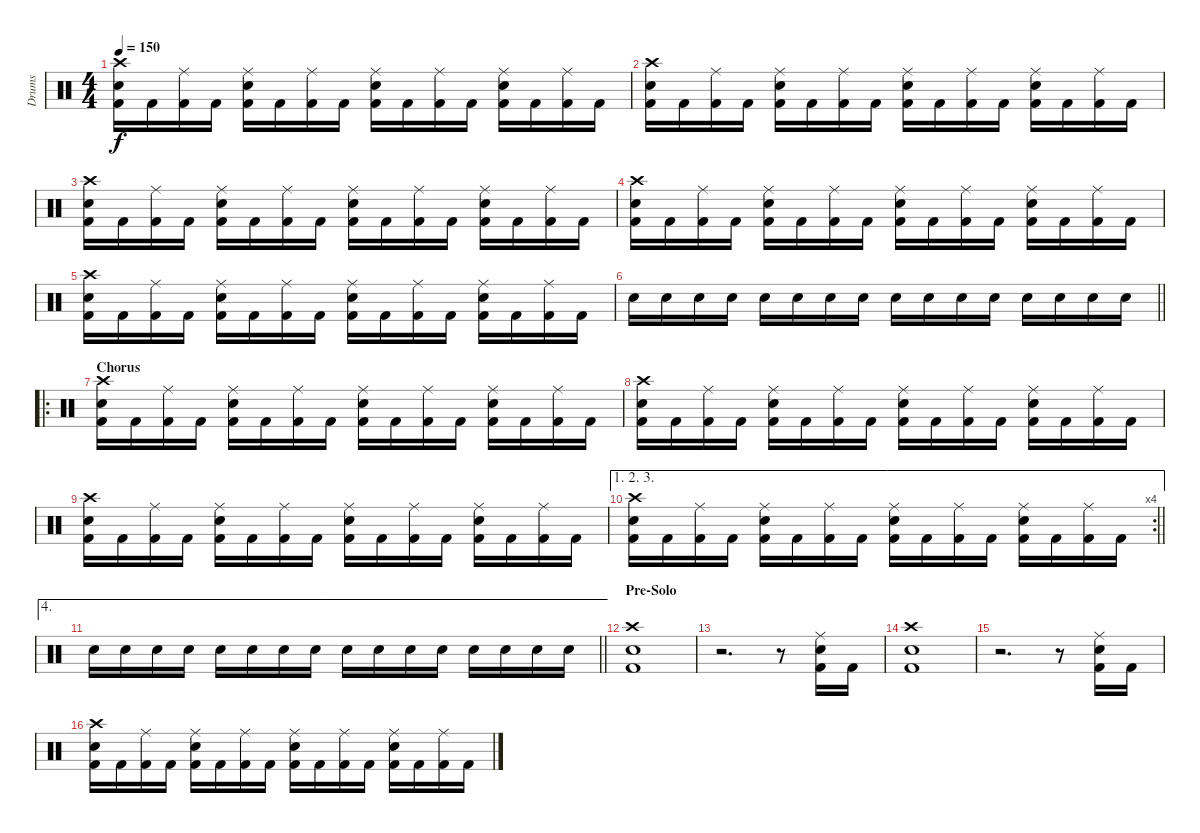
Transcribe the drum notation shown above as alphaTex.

\track ("Drums" "Drums") {instrument percussion}
\staff {score}
\articulation defaults
\ts (4 4)
\tempo 150
\clef neutral
\ks c
("Kick (hit) 2" "Snare (hit) 2" "Crash high (hit)").16{dy f} "Kick (hit) 2".16 ("Kick (hit) 2" "Ride (middle)").16 "Kick (hit) 2".16 ("Kick (hit) 2" "Snare (hit) 2" "Ride (middle)").16 "Kick (hit) 2".16 ("Kick (hit) 2" "Ride (middle)").16 "Kick (hit) 2".16 ("Kick (hit) 2" "Snare (hit) 2" "Ride (middle)").16 "Kick (hit) 2".16 ("Kick (hit) 2" "Ride (middle)").16 "Kick (hit) 2".16 ("Kick (hit) 2" "Snare (hit) 2" "Ride (middle)").16 "Kick (hit) 2".16 ("Kick (hit) 2" "Ride (middle)").16 "Kick (hit) 2".16 |
("Kick (hit) 2" "Snare (hit) 2" "Crash high (hit)").16 "Kick (hit) 2".16 ("Kick (hit) 2" "Ride (middle)").16 "Kick (hit) 2".16 ("Kick (hit) 2" "Snare (hit) 2" "Ride (middle)").16 "Kick (hit) 2".16 ("Kick (hit) 2" "Ride (middle)").16 "Kick (hit) 2".16 ("Kick (hit) 2" "Snare (hit) 2" "Ride (middle)").16 "Kick (hit) 2".16 ("Kick (hit) 2" "Ride (middle)").16 "Kick (hit) 2".16 ("Kick (hit) 2" "Snare (hit) 2" "Ride (middle)").16 "Kick (hit) 2".16 ("Kick (hit) 2" "Ride (middle)").16 "Kick (hit) 2".16 |
("Kick (hit) 2" "Snare (hit) 2" "Crash high (hit)").16 "Kick (hit) 2".16 ("Kick (hit) 2" "Ride (middle)").16 "Kick (hit) 2".16 ("Kick (hit) 2" "Snare (hit) 2" "Ride (middle)").16 "Kick (hit) 2".16 ("Kick (hit) 2" "Ride (middle)").16 "Kick (hit) 2".16 ("Kick (hit) 2" "Snare (hit) 2" "Ride (middle)").16 "Kick (hit) 2".16 ("Kick (hit) 2" "Ride (middle)").16 "Kick (hit) 2".16 ("Kick (hit) 2" "Snare (hit) 2" "Ride (middle)").16 "Kick (hit) 2".16 ("Kick (hit) 2" "Ride (middle)").16 "Kick (hit) 2".16 |
("Kick (hit) 2" "Snare (hit) 2" "Crash high (hit)").16 "Kick (hit) 2".16 ("Kick (hit) 2" "Ride (middle)").16 "Kick (hit) 2".16 ("Kick (hit) 2" "Snare (hit) 2" "Ride (middle)").16 "Kick (hit) 2".16 ("Kick (hit) 2" "Ride (middle)").16 "Kick (hit) 2".16 ("Kick (hit) 2" "Snare (hit) 2" "Ride (middle)").16 "Kick (hit) 2".16 ("Kick (hit) 2" "Ride (middle)").16 "Kick (hit) 2".16 ("Kick (hit) 2" "Snare (hit) 2" "Ride (middle)").16 "Kick (hit) 2".16 ("Kick (hit) 2" "Ride (middle)").16 "Kick (hit) 2".16 |
("Kick (hit) 2" "Snare (hit) 2" "Crash high (hit)").16 "Kick (hit) 2".16 ("Kick (hit) 2" "Ride (middle)").16 "Kick (hit) 2".16 ("Kick (hit) 2" "Snare (hit) 2" "Ride (middle)").16 "Kick (hit) 2".16 ("Kick (hit) 2" "Ride (middle)").16 "Kick (hit) 2".16 ("Kick (hit) 2" "Snare (hit) 2" "Ride (middle)").16 "Kick (hit) 2".16 ("Kick (hit) 2" "Ride (middle)").16 "Kick (hit) 2".16 ("Kick (hit) 2" "Snare (hit) 2" "Ride (middle)").16 "Kick (hit) 2".16 ("Kick (hit) 2" "Ride (middle)").16 "Kick (hit) 2".16 |
\barLineRight lightlight "Snare (hit) 2".16 "Snare (hit) 2".16 "Snare (hit) 2".16 "Snare (hit) 2".16 "Snare (hit) 2".16 "Snare (hit) 2".16 "Snare (hit) 2".16 "Snare (hit) 2".16 "Snare (hit) 2".16 "Snare (hit) 2".16 "Snare (hit) 2".16 "Snare (hit) 2".16 "Snare (hit) 2".16 "Snare (hit) 2".16 "Snare (hit) 2".16 "Snare (hit) 2".16
|
\ro
\section ("" "Chorus")
("Kick (hit) 2" "Snare (hit) 2" "Crash high (hit)").16 "Kick (hit) 2".16 ("Kick (hit) 2" "Ride (middle)").16 "Kick (hit) 2".16 ("Kick (hit) 2" "Snare (hit) 2" "Ride (middle)").16 "Kick (hit) 2".16 ("Kick (hit) 2" "Ride (middle)").16 "Kick (hit) 2".16 ("Kick (hit) 2" "Snare (hit) 2" "Ride (middle)").16 "Kick (hit) 2".16 ("Kick (hit) 2" "Ride (middle)").16 "Kick (hit) 2".16 ("Kick (hit) 2" "Snare (hit) 2" "Ride (middle)").16 "Kick (hit) 2".16 ("Kick (hit) 2" "Ride (middle)").16 "Kick (hit) 2".16 |
("Kick (hit) 2" "Snare (hit) 2" "Crash high (hit)").16 "Kick (hit) 2".16 ("Kick (hit) 2" "Ride (middle)").16 "Kick (hit) 2".16 ("Kick (hit) 2" "Snare (hit) 2" "Ride (middle)").16 "Kick (hit) 2".16 ("Kick (hit) 2" "Ride (middle)").16 "Kick (hit) 2".16 ("Kick (hit) 2" "Snare (hit) 2" "Ride (middle)").16 "Kick (hit) 2".16 ("Kick (hit) 2" "Ride (middle)").16 "Kick (hit) 2".16 ("Kick (hit) 2" "Snare (hit) 2" "Ride (middle)").16 "Kick (hit) 2".16 ("Kick (hit) 2" "Ride (middle)").16 "Kick (hit) 2".16 |
("Kick (hit) 2" "Snare (hit) 2" "Crash high (hit)").16 "Kick (hit) 2".16 ("Kick (hit) 2" "Ride (middle)").16 "Kick (hit) 2".16 ("Kick (hit) 2" "Snare (hit) 2" "Ride (middle)").16 "Kick (hit) 2".16 ("Kick (hit) 2" "Ride (middle)").16 "Kick (hit) 2".16 ("Kick (hit) 2" "Snare (hit) 2" "Ride (middle)").16 "Kick (hit) 2".16 ("Kick (hit) 2" "Ride (middle)").16 "Kick (hit) 2".16 ("Kick (hit) 2" "Snare (hit) 2" "Ride (middle)").16 "Kick (hit) 2".16 ("Kick (hit) 2" "Ride (middle)").16 "Kick (hit) 2".16 |
\ae (1 2 3)
\rc 4
\barLineRight lightlight
("Kick (hit) 2" "Snare (hit) 2" "Crash high (hit)").16 "Kick (hit) 2".16 ("Kick (hit) 2" "Ride (middle)").16 "Kick (hit) 2".16 ("Kick (hit) 2" "Snare (hit) 2" "Ride (middle)").16 "Kick (hit) 2".16 ("Kick (hit) 2" "Ride (middle)").16 "Kick (hit) 2".16 ("Kick (hit) 2" "Snare (hit) 2" "Ride (middle)").16 "Kick (hit) 2".16 ("Kick (hit) 2" "Ride (middle)").16 "Kick (hit) 2".16 ("Kick (hit) 2" "Snare (hit) 2" "Ride (middle)").16 "Kick (hit) 2".16 ("Kick (hit) 2" "Ride (middle)").16 "Kick (hit) 2".16 |
\ae 4
\barLineRight lightlight "Snare (hit) 2".16 "Snare (hit) 2".16 "Snare (hit) 2".16 "Snare (hit) 2".16 "Snare (hit) 2".16 "Snare (hit) 2".16 "Snare (hit) 2".16 "Snare (hit) 2".16 "Snare (hit) 2".16 "Snare (hit) 2".16 "Snare (hit) 2".16 "Snare (hit) 2".16 "Snare (hit) 2".16 "Snare (hit) 2".16 "Snare (hit) 2".16 "Snare (hit) 2".16
|
\section ("" "Pre-Solo")
("Kick (hit) 2" "Snare (hit) 2" "Crash high (hit)").1 |
r.2{d} r.8 ("Kick (hit) 2" "Snare (hit) 2" "Ride (middle)").16 "Kick (hit) 2".16 |
("Kick (hit) 2" "Snare (hit) 2" "Crash high (hit)").1 |
r.2{d} r.8 ("Kick (hit) 2" "Snare (hit) 2" "Ride (middle)").16 "Kick (hit) 2".16 |
("Kick (hit) 2" "Snare (hit) 2" "Crash high (hit)").16 "Kick (hit) 2".16 ("Kick (hit) 2" "Ride (middle)").16 "Kick (hit) 2".16 ("Kick (hit) 2" "Snare (hit) 2" "Ride (middle)").16 "Kick (hit) 2".16 ("Kick (hit) 2" "Ride (middle)").16 "Kick (hit) 2".16 ("Kick (hit) 2" "Snare (hit) 2" "Ride (middle)").16 "Kick (hit) 2".16 ("Kick (hit) 2" "Ride (middle)").16 "Kick (hit) 2".16 ("Kick (hit) 2" "Snare (hit) 2" "Ride (middle)").16 "Kick (hit) 2".16 ("Kick (hit) 2" "Ride (middle)").16 "Kick (hit) 2".16
